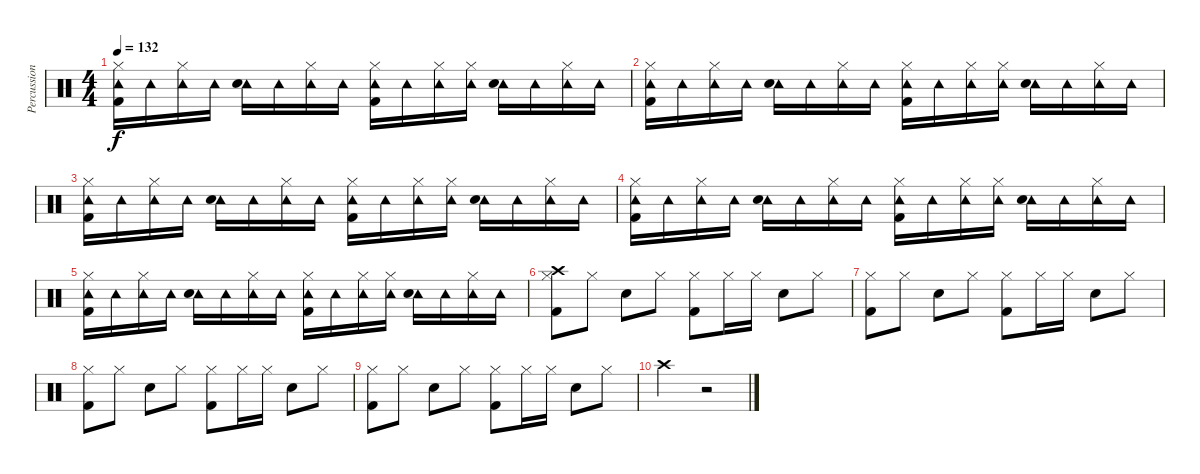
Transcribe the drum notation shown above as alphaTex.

\track ("Percussion" "Percussion") {instrument percussion}
\staff {score}
\articulation defaults
\ts (4 4)
\tempo 132
\clef neutral
\ks c
("Tambourine (hit)" "Hi-Hat (closed)" "Kick (hit) 2").16{dy f} "Tambourine (hit)".16 ("Tambourine (hit)" "Hi-Hat (closed)").16 "Tambourine (hit)".16 ("Tambourine (hit)" "Snare (hit) 2").16 "Tambourine (hit)".16 ("Tambourine (hit)" "Hi-Hat (closed)").16 "Tambourine (hit)".16 ("Tambourine (hit)" "Hi-Hat (closed)" "Kick (hit) 2").16 "Tambourine (hit)".16 ("Tambourine (hit)" "Hi-Hat (closed)").16 ("Tambourine (hit)" "Hi-Hat (closed)").16 ("Tambourine (hit)" "Snare (hit) 2").16 "Tambourine (hit)".16 ("Tambourine (hit)" "Hi-Hat (closed)").16 "Tambourine (hit)".16 |
("Tambourine (hit)" "Hi-Hat (closed)" "Kick (hit) 2").16 "Tambourine (hit)".16 ("Tambourine (hit)" "Hi-Hat (closed)").16 "Tambourine (hit)".16 ("Tambourine (hit)" "Snare (hit) 2").16 "Tambourine (hit)".16 ("Tambourine (hit)" "Hi-Hat (closed)").16 "Tambourine (hit)".16 ("Tambourine (hit)" "Hi-Hat (closed)" "Kick (hit) 2").16 "Tambourine (hit)".16 ("Tambourine (hit)" "Hi-Hat (closed)").16 ("Tambourine (hit)" "Hi-Hat (closed)").16 ("Tambourine (hit)" "Snare (hit) 2").16 "Tambourine (hit)".16 ("Tambourine (hit)" "Hi-Hat (closed)").16 "Tambourine (hit)".16 |
("Tambourine (hit)" "Hi-Hat (closed)" "Kick (hit) 2").16 "Tambourine (hit)".16 ("Tambourine (hit)" "Hi-Hat (closed)").16 "Tambourine (hit)".16 ("Tambourine (hit)" "Snare (hit) 2").16 "Tambourine (hit)".16 ("Tambourine (hit)" "Hi-Hat (closed)").16 "Tambourine (hit)".16 ("Tambourine (hit)" "Hi-Hat (closed)" "Kick (hit) 2").16 "Tambourine (hit)".16 ("Tambourine (hit)" "Hi-Hat (closed)").16 ("Tambourine (hit)" "Hi-Hat (closed)").16 ("Tambourine (hit)" "Snare (hit) 2").16 "Tambourine (hit)".16 ("Tambourine (hit)" "Hi-Hat (closed)").16 "Tambourine (hit)".16 |
("Tambourine (hit)" "Hi-Hat (closed)" "Kick (hit) 2").16 "Tambourine (hit)".16 ("Tambourine (hit)" "Hi-Hat (closed)").16 "Tambourine (hit)".16 ("Tambourine (hit)" "Snare (hit) 2").16 "Tambourine (hit)".16 ("Tambourine (hit)" "Hi-Hat (closed)").16 "Tambourine (hit)".16 ("Tambourine (hit)" "Hi-Hat (closed)" "Kick (hit) 2").16 "Tambourine (hit)".16 ("Tambourine (hit)" "Hi-Hat (closed)").16 ("Tambourine (hit)" "Hi-Hat (closed)").16 ("Tambourine (hit)" "Snare (hit) 2").16 "Tambourine (hit)".16 ("Tambourine (hit)" "Hi-Hat (closed)").16 "Tambourine (hit)".16 |
("Tambourine (hit)" "Hi-Hat (closed)" "Kick (hit) 2").16 "Tambourine (hit)".16 ("Tambourine (hit)" "Hi-Hat (closed)").16 "Tambourine (hit)".16 ("Tambourine (hit)" "Snare (hit) 2").16 "Tambourine (hit)".16 ("Tambourine (hit)" "Hi-Hat (closed)").16 "Tambourine (hit)".16 ("Tambourine (hit)" "Hi-Hat (closed)" "Kick (hit) 2").16 "Tambourine (hit)".16 ("Tambourine (hit)" "Hi-Hat (closed)").16 ("Tambourine (hit)" "Hi-Hat (closed)").16 ("Tambourine (hit)" "Snare (hit) 2").16 "Tambourine (hit)".16 ("Tambourine (hit)" "Hi-Hat (closed)").16 "Tambourine (hit)".16 |
("Crash high (hit)" "Hi-Hat (closed)" "Kick (hit) 2").8 "Hi-Hat (closed)".8 "Snare (hit) 2".8 "Hi-Hat (closed)".8 ("Hi-Hat (closed)" "Kick (hit) 2").8 "Hi-Hat (closed)".16 "Hi-Hat (closed)".16 "Snare (hit) 2".8 "Hi-Hat (closed)".8 |
("Hi-Hat (closed)" "Kick (hit) 2").8 "Hi-Hat (closed)".8 "Snare (hit) 2".8 "Hi-Hat (closed)".8 ("Hi-Hat (closed)" "Kick (hit) 2").8 "Hi-Hat (closed)".16 "Hi-Hat (closed)".16 "Snare (hit) 2".8 "Hi-Hat (closed)".8 |
("Hi-Hat (closed)" "Kick (hit) 2").8 "Hi-Hat (closed)".8 "Snare (hit) 2".8 "Hi-Hat (closed)".8 ("Hi-Hat (closed)" "Kick (hit) 2").8 "Hi-Hat (closed)".16 "Hi-Hat (closed)".16 "Snare (hit) 2".8 "Hi-Hat (closed)".8 |
("Hi-Hat (closed)" "Kick (hit) 2").8 "Hi-Hat (closed)".8 "Snare (hit) 2".8 "Hi-Hat (closed)".8 ("Hi-Hat (closed)" "Kick (hit) 2").8 "Hi-Hat (closed)".16 "Hi-Hat (closed)".16 "Snare (hit) 2".8 "Hi-Hat (closed)".8 |
"Crash high (hit)".2 r.2
